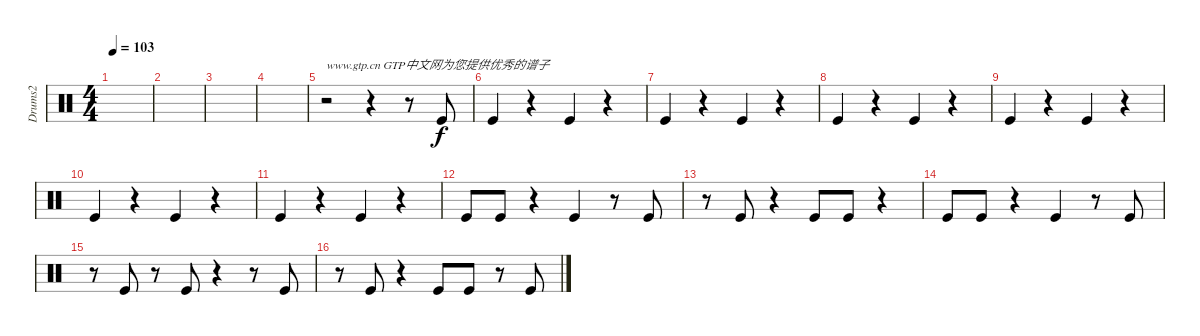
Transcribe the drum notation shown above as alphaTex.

\track ("Drums2" "Drums2") {instrument percussion}
\staff {score}
\articulation defaults
\ts (4 4)
\tempo 103
\clef neutral
\ks c
|
|
|
|
r.2{txt "www.gtp.cn GTP中文网为您提供优秀的谱子"} r.4 r.8 "Kick (hit)".8 |
"Kick (hit)".4 r.4 "Kick (hit)".4 r.4 |
"Kick (hit)".4 r.4 "Kick (hit)".4 r.4 |
"Kick (hit)".4 r.4 "Kick (hit)".4 r.4 |
"Kick (hit)".4 r.4 "Kick (hit)".4 r.4 |
"Kick (hit)".4 r.4 "Kick (hit)".4 r.4 |
"Kick (hit)".4 r.4 "Kick (hit)".4 r.4 |
"Kick (hit)".8 "Kick (hit)".8 r.4 "Kick (hit)".4 r.8 "Kick (hit)".8 |
r.8 "Kick (hit)".8 r.4 "Kick (hit)".8 "Kick (hit)".8 r.4 |
"Kick (hit)".8 "Kick (hit)".8 r.4 "Kick (hit)".4 r.8 "Kick (hit)".8 |
r.8 "Kick (hit)".8 r.8 "Kick (hit)".8 r.4 r.8 "Kick (hit)".8 |
r.8 "Kick (hit)".8 r.4 "Kick (hit)".8 "Kick (hit)".8 r.8 "Kick (hit)".8
